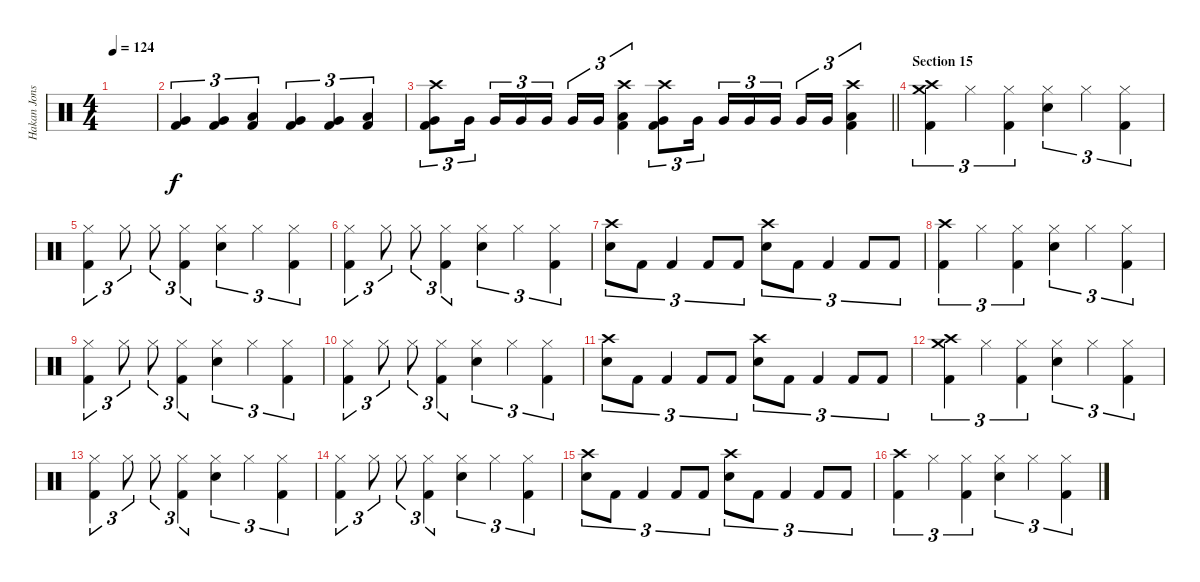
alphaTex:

\track ("Hakan Jonsson" "Hakan Jons") {instrument percussion}
\staff {score}
\articulation defaults
\ts (4 4)
\tempo 124
\clef neutral
\ks c
|
("Very Low Tom (hit)" "Kick (hit) 2").4{tu (3 2)} ("Very Low Tom (hit)" "Kick (hit) 2").4{tu (3 2)} ("Low Floor Tom (hit)" "Kick (hit) 2").4{tu (3 2)} ("Very Low Tom (hit)" "Kick (hit) 2").4{tu (3 2)} ("Very Low Tom (hit)" "Kick (hit) 2").4{tu (3 2)} ("Low Floor Tom (hit)" "Kick (hit) 2").4{tu (3 2)} |
\barLineRight lightlight
("Crash high (hit)" "Very Low Tom (hit)" "Kick (hit) 2").8{tu (3 2)} "Very Low Tom (hit)".16{tu (3 2) beam splitsecondary} "Very Low Tom (hit)".16{tu (3 2)} "Very Low Tom (hit)".16{tu (3 2)} "Very Low Tom (hit)".16{tu (3 2)} "Very Low Tom (hit)".16{tu (3 2)} "Very Low Tom (hit)".16{tu (3 2)} ("Crash high (hit)" "Low Floor Tom (hit)" "Kick (hit) 2").4{tu (3 2)} ("Crash high (hit)" "Very Low Tom (hit)" "Kick (hit) 2").8{tu (3 2)} "Very Low Tom (hit)".16{tu (3 2) beam splitsecondary} "Very Low Tom (hit)".16{tu (3 2)} "Very Low Tom (hit)".16{tu (3 2)} "Very Low Tom (hit)".16{tu (3 2)} "Very Low Tom (hit)".16{tu (3 2)} "Very Low Tom (hit)".16{tu (3 2)} ("Crash high (hit)" "Low Floor Tom (hit)" "Kick (hit) 2").4{tu (3 2)} |
\section ("" "Section 15")
("Crash medium (hit)" "Crash high (hit)" "Kick (hit) 2").4{tu (3 2)} "Hi-Hat (closed)".4{tu (3 2)} ("Hi-Hat (closed)" "Kick (hit) 2").4{tu (3 2)} ("Hi-Hat (closed)" "Electric Snare (hit)").4{tu (3 2)} "Hi-Hat (closed)".4{tu (3 2)} ("Hi-Hat (closed)" "Kick (hit) 2").4{tu (3 2)} |
("Hi-Hat (closed)" "Kick (hit) 2").4{tu (3 2)} "Hi-Hat (closed)".8{tu (3 2)} "Hi-Hat (closed)".8{tu (3 2)} ("Hi-Hat (closed)" "Kick (hit) 2").4{tu (3 2)} ("Hi-Hat (closed)" "Electric Snare (hit)").4{tu (3 2)} "Hi-Hat (closed)".4{tu (3 2)} ("Hi-Hat (closed)" "Kick (hit) 2").4{tu (3 2)} |
("Hi-Hat (closed)" "Kick (hit) 2").4{tu (3 2)} "Hi-Hat (closed)".8{tu (3 2)} "Hi-Hat (closed)".8{tu (3 2)} ("Hi-Hat (closed)" "Kick (hit) 2").4{tu (3 2)} ("Hi-Hat (closed)" "Electric Snare (hit)").4{tu (3 2)} "Hi-Hat (closed)".4{tu (3 2)} ("Hi-Hat (closed)" "Kick (hit) 2").4{tu (3 2)} |
("Crash high (hit)" "Electric Snare (hit)").8{tu (3 2)} "Kick (hit) 2".8{tu (3 2)} "Kick (hit) 2".4{tu (3 2)} "Kick (hit) 2".8{tu (3 2)} "Kick (hit) 2".8{tu (3 2)} ("Crash high (hit)" "Electric Snare (hit)").8{tu (3 2)} "Kick (hit) 2".8{tu (3 2)} "Kick (hit) 2".4{tu (3 2)} "Kick (hit) 2".8{tu (3 2)} "Kick (hit) 2".8{tu (3 2)} |
("Crash high (hit)" "Kick (hit) 2").4{tu (3 2)} "Hi-Hat (closed)".4{tu (3 2)} ("Hi-Hat (closed)" "Kick (hit) 2").4{tu (3 2)} ("Hi-Hat (closed)" "Electric Snare (hit)").4{tu (3 2)} "Hi-Hat (closed)".4{tu (3 2)} ("Hi-Hat (closed)" "Kick (hit) 2").4{tu (3 2)} |
("Hi-Hat (closed)" "Kick (hit) 2").4{tu (3 2)} "Hi-Hat (closed)".8{tu (3 2)} "Hi-Hat (closed)".8{tu (3 2)} ("Hi-Hat (closed)" "Kick (hit) 2").4{tu (3 2)} ("Hi-Hat (closed)" "Electric Snare (hit)").4{tu (3 2)} "Hi-Hat (closed)".4{tu (3 2)} ("Hi-Hat (closed)" "Kick (hit) 2").4{tu (3 2)} |
("Hi-Hat (closed)" "Kick (hit) 2").4{tu (3 2)} "Hi-Hat (closed)".8{tu (3 2)} "Hi-Hat (closed)".8{tu (3 2)} ("Hi-Hat (closed)" "Kick (hit) 2").4{tu (3 2)} ("Hi-Hat (closed)" "Electric Snare (hit)").4{tu (3 2)} "Hi-Hat (closed)".4{tu (3 2)} ("Hi-Hat (closed)" "Kick (hit) 2").4{tu (3 2)} |
("Crash high (hit)" "Electric Snare (hit)").8{tu (3 2)} "Kick (hit) 2".8{tu (3 2)} "Kick (hit) 2".4{tu (3 2)} "Kick (hit) 2".8{tu (3 2)} "Kick (hit) 2".8{tu (3 2)} ("Crash high (hit)" "Electric Snare (hit)").8{tu (3 2)} "Kick (hit) 2".8{tu (3 2)} "Kick (hit) 2".4{tu (3 2)} "Kick (hit) 2".8{tu (3 2)} "Kick (hit) 2".8{tu (3 2)} |
("Crash medium (hit)" "Crash high (hit)" "Kick (hit) 2").4{tu (3 2)} "Hi-Hat (closed)".4{tu (3 2)} ("Hi-Hat (closed)" "Kick (hit) 2").4{tu (3 2)} ("Hi-Hat (closed)" "Electric Snare (hit)").4{tu (3 2)} "Hi-Hat (closed)".4{tu (3 2)} ("Hi-Hat (closed)" "Kick (hit) 2").4{tu (3 2)} |
("Hi-Hat (closed)" "Kick (hit) 2").4{tu (3 2)} "Hi-Hat (closed)".8{tu (3 2)} "Hi-Hat (closed)".8{tu (3 2)} ("Hi-Hat (closed)" "Kick (hit) 2").4{tu (3 2)} ("Hi-Hat (closed)" "Electric Snare (hit)").4{tu (3 2)} "Hi-Hat (closed)".4{tu (3 2)} ("Hi-Hat (closed)" "Kick (hit) 2").4{tu (3 2)} |
("Hi-Hat (closed)" "Kick (hit) 2").4{tu (3 2)} "Hi-Hat (closed)".8{tu (3 2)} "Hi-Hat (closed)".8{tu (3 2)} ("Hi-Hat (closed)" "Kick (hit) 2").4{tu (3 2)} ("Hi-Hat (closed)" "Electric Snare (hit)").4{tu (3 2)} "Hi-Hat (closed)".4{tu (3 2)} ("Hi-Hat (closed)" "Kick (hit) 2").4{tu (3 2)} |
("Crash high (hit)" "Electric Snare (hit)").8{tu (3 2)} "Kick (hit) 2".8{tu (3 2)} "Kick (hit) 2".4{tu (3 2)} "Kick (hit) 2".8{tu (3 2)} "Kick (hit) 2".8{tu (3 2)} ("Crash high (hit)" "Electric Snare (hit)").8{tu (3 2)} "Kick (hit) 2".8{tu (3 2)} "Kick (hit) 2".4{tu (3 2)} "Kick (hit) 2".8{tu (3 2)} "Kick (hit) 2".8{tu (3 2)} |
("Crash high (hit)" "Kick (hit) 2").4{tu (3 2)} "Hi-Hat (closed)".4{tu (3 2)} ("Hi-Hat (closed)" "Kick (hit) 2").4{tu (3 2)} ("Hi-Hat (closed)" "Electric Snare (hit)").4{tu (3 2)} "Hi-Hat (closed)".4{tu (3 2)} ("Hi-Hat (closed)" "Kick (hit) 2").4{tu (3 2)}
